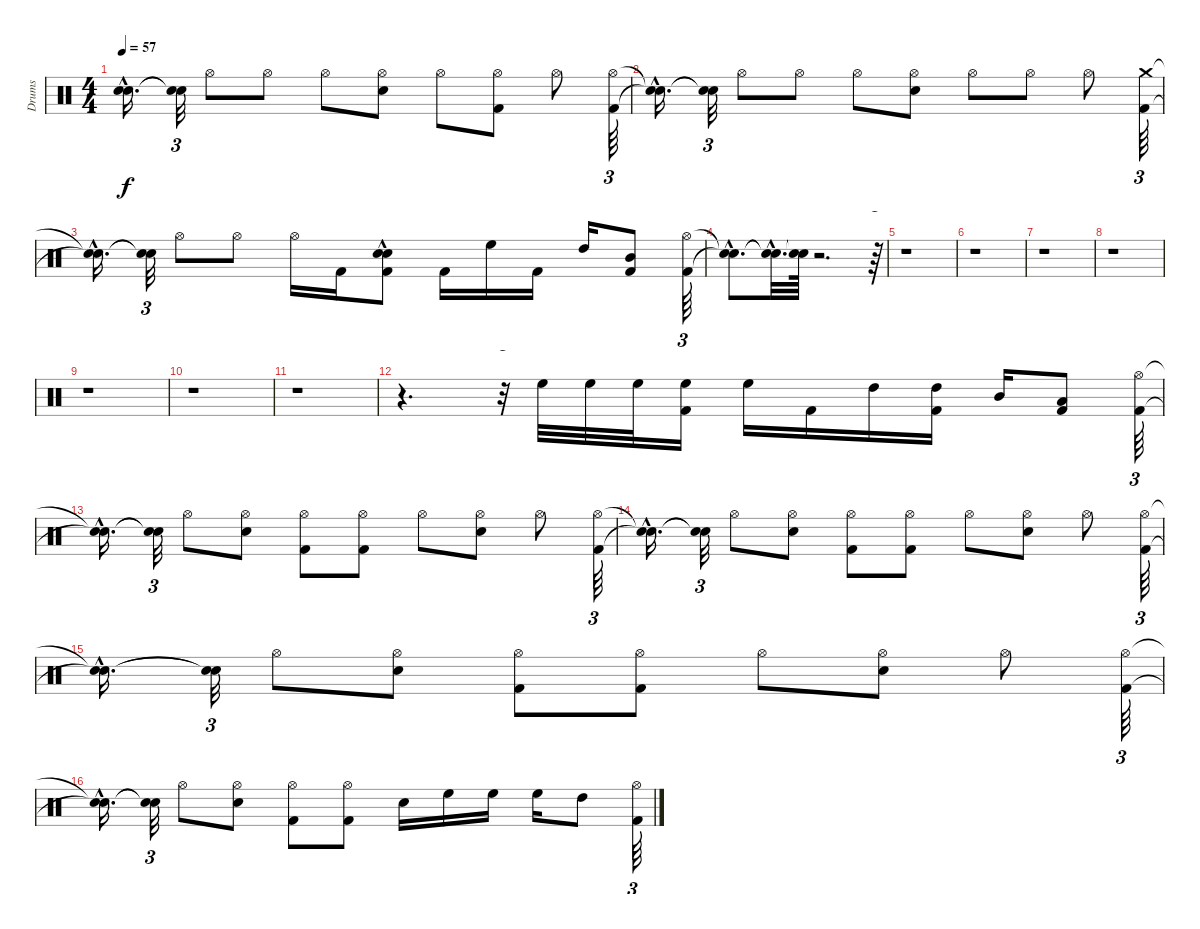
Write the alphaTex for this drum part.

\track ("Drums" "Drums") {instrument percussion}
\staff {score}
\articulation defaults
\ts (4 4)
\tempo 57
\clef neutral
\ks c
("Snare (hit)"{hac t} "Snare (hit)"{hac t}).16{d dy f} ("Snare (hit)"{t} "Snare (hit)"{t}).32{tu (3 2)} "Hi-Hat (open)".8 "Hi-Hat (open)".8 "Hi-Hat (open)".8 ("Snare (hit) 2" "Hi-Hat (open)").8 "Hi-Hat (open)".8 ("Kick (hit) 2" "Hi-Hat (open)").8 "Hi-Hat (open)".8 ("Hi-Hat (open)" "Kick (hit) 2").64{tu (3 2)} |
("Snare (hit)"{hac t} "Snare (hit)"{hac t}).16{d} ("Snare (hit)"{t} "Snare (hit)"{t}).32{tu (3 2)} "Hi-Hat (open)".8 "Hi-Hat (open)".8 "Hi-Hat (open)".8 ("Hi-Hat (open)" "Snare (hit) 2").8 "Hi-Hat (open)".8 "Hi-Hat (open)".8 "Hi-Hat (open)".8 ("Crash medium (hit)" "Kick (hit) 2").64{tu (3 2)} |
("Snare (hit)"{hac t} "Snare (hit)"{hac t}).16{d} ("Snare (hit)"{t} "Snare (hit)"{t}).32{tu (3 2)} "Hi-Hat (open)".8 "Hi-Hat (open)".8 "Hi-Hat (open)".16 "Kick (hit) 2".16 ("Kick (hit) 2" "Snare (hit) 2"{hac} "Snare (hit) 2"{hac}).8 "Kick (hit) 2".16 "High Floor Tom (hit)".16 "Kick (hit) 2".16 "High Tom (hit)".16 ("Mid Tom (hit)" "Kick (hit) 2").8 ("Hi-Hat (open)" "Kick (hit) 2").64{tu (3 2)} |
("Snare (hit)"{hac t} "Snare (hit)"{hac t}).8{d} ("Snare (hit)"{hac t} "Snare (hit)"{hac t}).32{d} ("Snare (hit)"{t} "Snare (hit)"{t}).64 r.2{d} r.64{tu (3 2)} |
r.1 |
r.1 |
r.1 |
r.1 |
r.1 |
r.1 |
r.1 |
r.4{d} r.32{tu (3 2)} "High Floor Tom (hit)".32 "High Floor Tom (hit)".32 "High Floor Tom (hit)".32 ("High Floor Tom (hit)" "Kick (hit) 2").16 "High Floor Tom (hit)".16 "Kick (hit) 2".16 "High Tom (hit)".16 ("High Tom (hit)" "Kick (hit) 2").16 "Mid Tom (hit)".16 ("Low Tom (hit)" "Kick (hit) 2").8 ("Kick (hit) 2" "Hi-Hat (open)").64{tu (3 2)} |
("Snare (hit)"{hac t} "Snare (hit)"{hac t}).16{d} ("Snare (hit)"{t} "Snare (hit)"{t}).32{tu (3 2)} "Hi-Hat (open)".8 ("Snare (hit) 2" "Hi-Hat (open)").8 ("Kick (hit) 2" "Hi-Hat (open)").8 ("Kick (hit) 2" "Hi-Hat (open)").8 "Hi-Hat (open)".8 ("Snare (hit) 2" "Hi-Hat (open)").8 "Hi-Hat (open)".8 ("Kick (hit) 2" "Hi-Hat (open)").64{tu (3 2)} |
("Snare (hit)"{hac t} "Snare (hit)"{hac t}).16{d} ("Snare (hit)"{t} "Snare (hit)"{t}).32{tu (3 2)} "Hi-Hat (open)".8 ("Snare (hit) 2" "Hi-Hat (open)").8 ("Kick (hit) 2" "Hi-Hat (open)").8 ("Kick (hit) 2" "Hi-Hat (open)").8 "Hi-Hat (open)".8 ("Snare (hit) 2" "Hi-Hat (open)").8 "Hi-Hat (open)".8 ("Kick (hit) 2" "Hi-Hat (open)").64{tu (3 2)} |
("Snare (hit)"{hac t} "Snare (hit)"{hac t}).16{d} ("Snare (hit)"{t} "Snare (hit)"{t}).32{tu (3 2)} "Hi-Hat (open)".8 ("Snare (hit) 2" "Hi-Hat (open)").8 ("Kick (hit) 2" "Hi-Hat (open)").8 ("Kick (hit) 2" "Hi-Hat (open)").8 "Hi-Hat (open)".8 ("Snare (hit) 2" "Hi-Hat (open)").8 "Hi-Hat (open)".8 ("Kick (hit) 2" "Hi-Hat (open)").64{tu (3 2)} |
("Snare (hit)"{hac t} "Snare (hit)"{hac t}).16{d} ("Snare (hit)"{t} "Snare (hit)"{t}).32{tu (3 2)} "Hi-Hat (open)".8 ("Snare (hit) 2" "Hi-Hat (open)").8 ("Kick (hit) 2" "Hi-Hat (open)").8 ("Hi-Hat (open)" "Kick (hit) 2").8 "Snare (hit) 2".16 "High Floor Tom (hit)".16 "High Floor Tom (hit)".16 "High Floor Tom (hit)".16 "High Tom (hit)".8 ("Kick (hit) 2" "Hi-Hat (open)").64{tu (3 2)}
